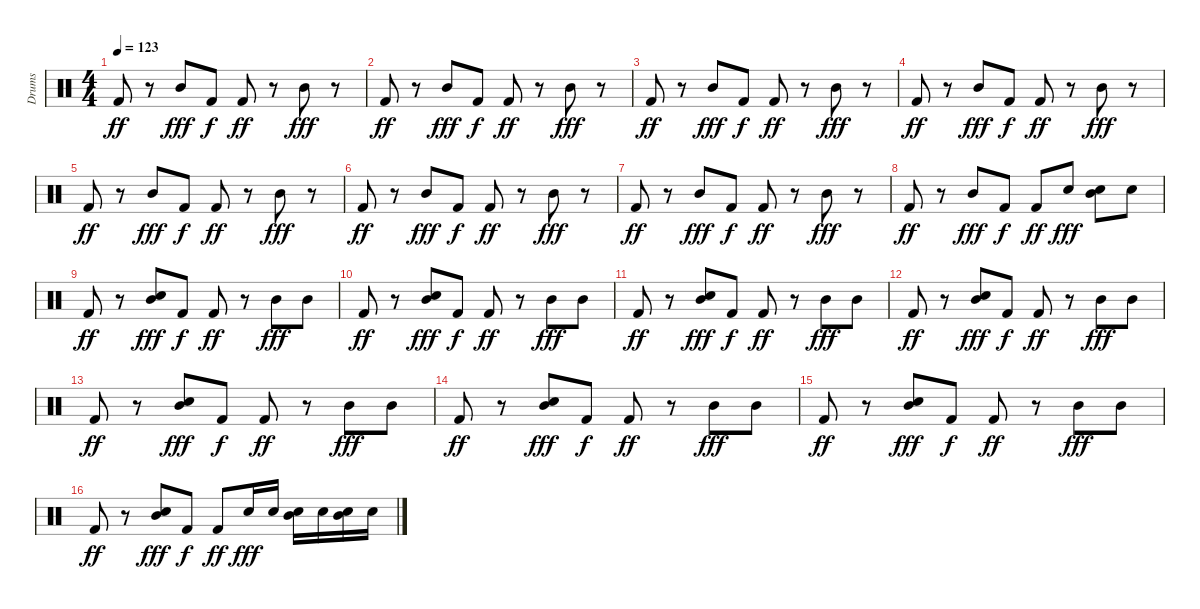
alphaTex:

\track ("Drums" "Drums") {instrument percussion}
\staff {score}
\articulation defaults
\ts (4 4)
\tempo 123
\clef neutral
\ks c "Kick (hit) 2".8{dy ff}
r.8 "Mid Tom (hit)".8{dy fff} "Kick (hit) 2".8{dy f} "Kick (hit) 2".8{dy ff} r.8 "Mid Tom (hit)".8{dy fff} r.8 |
"Kick (hit) 2".8{dy ff} r.8 "Mid Tom (hit)".8{dy fff} "Kick (hit) 2".8{dy f} "Kick (hit) 2".8{dy ff} r.8 "Mid Tom (hit)".8{dy fff} r.8 |
"Kick (hit) 2".8{dy ff} r.8 "Mid Tom (hit)".8{dy fff} "Kick (hit) 2".8{dy f} "Kick (hit) 2".8{dy ff} r.8 "Mid Tom (hit)".8{dy fff} r.8 |
"Kick (hit) 2".8{dy ff} r.8 "Mid Tom (hit)".8{dy fff} "Kick (hit) 2".8{dy f} "Kick (hit) 2".8{dy ff} r.8 "Mid Tom (hit)".8{dy fff} r.8 |
"Kick (hit) 2".8{dy ff} r.8 "Mid Tom (hit)".8{dy fff} "Kick (hit) 2".8{dy f} "Kick (hit) 2".8{dy ff} r.8 "Mid Tom (hit)".8{dy fff} r.8 |
"Kick (hit) 2".8{dy ff} r.8 "Mid Tom (hit)".8{dy fff} "Kick (hit) 2".8{dy f} "Kick (hit) 2".8{dy ff} r.8 "Mid Tom (hit)".8{dy fff} r.8 |
"Kick (hit) 2".8{dy ff} r.8 "Mid Tom (hit)".8{dy fff} "Kick (hit) 2".8{dy f} "Kick (hit) 2".8{dy ff} r.8 "Mid Tom (hit)".8{dy fff} r.8 |
"Kick (hit) 2".8{dy ff} r.8 "Mid Tom (hit)".8{dy fff} "Kick (hit) 2".8{dy f} "Kick (hit) 2".8{dy ff} "Electric Snare (hit)".8{dy fff} ("Electric Snare (hit)" "Mid Tom (hit)").8 "Electric Snare (hit)".8 |
"Kick (hit) 2".8{dy ff} r.8 ("Electric Snare (hit)" "Mid Tom (hit)").8{dy fff} "Kick (hit) 2".8{dy f} "Kick (hit) 2".8{dy ff} r.8 "Mid Tom (hit)".8{dy fff} "Mid Tom (hit)".8 |
"Kick (hit) 2".8{dy ff} r.8 ("Electric Snare (hit)" "Mid Tom (hit)").8{dy fff} "Kick (hit) 2".8{dy f} "Kick (hit) 2".8{dy ff} r.8 "Mid Tom (hit)".8{dy fff} "Mid Tom (hit)".8 |
"Kick (hit) 2".8{dy ff} r.8 ("Electric Snare (hit)" "Mid Tom (hit)").8{dy fff} "Kick (hit) 2".8{dy f} "Kick (hit) 2".8{dy ff} r.8 "Mid Tom (hit)".8{dy fff} "Mid Tom (hit)".8 |
"Kick (hit) 2".8{dy ff} r.8 ("Electric Snare (hit)" "Mid Tom (hit)").8{dy fff} "Kick (hit) 2".8{dy f} "Kick (hit) 2".8{dy ff} r.8 "Mid Tom (hit)".8{dy fff} "Mid Tom (hit)".8 |
"Kick (hit) 2".8{dy ff} r.8 ("Electric Snare (hit)" "Mid Tom (hit)").8{dy fff} "Kick (hit) 2".8{dy f} "Kick (hit) 2".8{dy ff} r.8 "Mid Tom (hit)".8{dy fff} "Mid Tom (hit)".8 |
"Kick (hit) 2".8{dy ff} r.8 ("Electric Snare (hit)" "Mid Tom (hit)").8{dy fff} "Kick (hit) 2".8{dy f} "Kick (hit) 2".8{dy ff} r.8 "Mid Tom (hit)".8{dy fff} "Mid Tom (hit)".8 |
"Kick (hit) 2".8{dy ff} r.8 ("Electric Snare (hit)" "Mid Tom (hit)").8{dy fff} "Kick (hit) 2".8{dy f} "Kick (hit) 2".8{dy ff} r.8 "Mid Tom (hit)".8{dy fff} "Mid Tom (hit)".8 |
"Kick (hit) 2".8{dy ff} r.8 ("Electric Snare (hit)" "Mid Tom (hit)").8{dy fff} "Kick (hit) 2".8{dy f} "Kick (hit) 2".8{dy ff} "Electric Snare (hit)".16{dy fff} "Electric Snare (hit)".16 ("Electric Snare (hit)" "Mid Tom (hit)").16 "Electric Snare (hit)".16 ("Electric Snare (hit)" "Mid Tom (hit)").16 "Electric Snare (hit)".16
